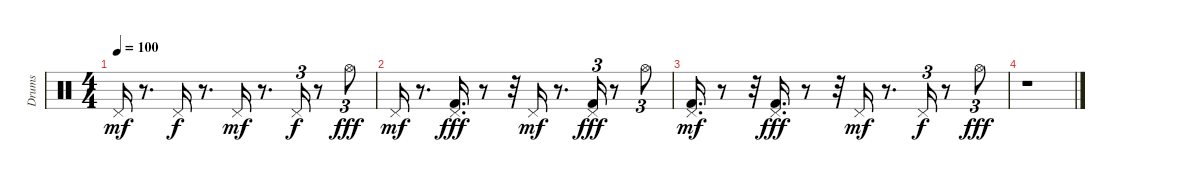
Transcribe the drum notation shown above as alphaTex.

\track ("Drums" "Drums") {instrument percussion}
\staff {score}
\articulation defaults
\ts (4 4)
\tempo 100
\clef neutral
\ks c "Pedal Hi-Hat (hit)".16{dy mf volume 3}
r.8{d} "Pedal Hi-Hat (hit)".16{dy f volume 3} r.8{d} "Pedal Hi-Hat (hit)".16{dy mf volume 2} r.8{d} "Pedal Hi-Hat (hit)".16{tu (3 2) dy f volume 2} r.8 "Hi-Hat (open)".8{tu (3 2) dy fff volume 1} |
"Pedal Hi-Hat (hit)".16{dy mf volume 1} r.8{d} ("Kick (hit) 2" "Pedal Hi-Hat (hit)").16{d dy fff volume 1} r.8 r.32 "Pedal Hi-Hat (hit)".16{dy mf volume 0} r.8{d} ("Kick (hit) 2" "Pedal Hi-Hat (hit)").16{tu (3 2) dy fff volume 0} r.8 "Hi-Hat (open)".8{tu (3 2)} |
("Kick (hit) 2" "Pedal Hi-Hat (hit)").16{d dy mf} r.8 r.32 ("Pedal Hi-Hat (hit)" "Kick (hit) 2").16{d dy fff} r.8 r.32 "Pedal Hi-Hat (hit)".16{dy mf} r.8{d} "Pedal Hi-Hat (hit)".16{tu (3 2) dy f} r.8 "Hi-Hat (open)".8{tu (3 2) dy fff} |
r.1
